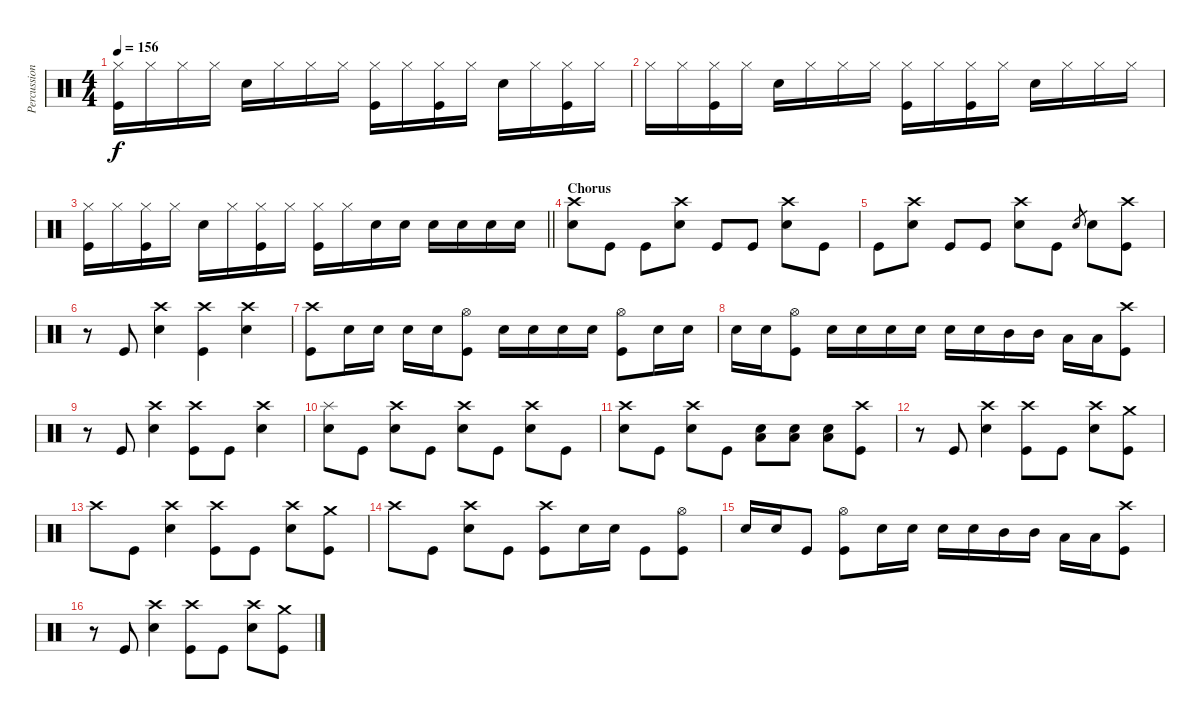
\track ("Percussion" "Percussion") {instrument percussion}
\staff {score}
\articulation defaults
\ts (4 4)
\tempo 156
\clef neutral
\ks c
("Hi-Hat (closed)" "Kick (hit)").16{dy f} "Hi-Hat (closed)".16 "Hi-Hat (closed)".16 "Hi-Hat (closed)".16 "Snare (hit) 2".16 "Hi-Hat (closed)".16 "Hi-Hat (closed)".16 "Hi-Hat (closed)".16 ("Hi-Hat (closed)" "Kick (hit)").16 "Hi-Hat (closed)".16 ("Hi-Hat (closed)" "Kick (hit)").16 "Hi-Hat (closed)".16 "Snare (hit) 2".16 "Hi-Hat (closed)".16 ("Hi-Hat (closed)" "Kick (hit)").16 "Hi-Hat (closed)".16 |
"Hi-Hat (closed)".16 "Hi-Hat (closed)".16 ("Hi-Hat (closed)" "Kick (hit)").16 "Hi-Hat (closed)".16 "Snare (hit) 2".16 "Hi-Hat (closed)".16 "Hi-Hat (closed)".16 "Hi-Hat (closed)".16 ("Hi-Hat (closed)" "Kick (hit)").16 "Hi-Hat (closed)".16 ("Hi-Hat (closed)" "Kick (hit)").16 "Hi-Hat (closed)".16 "Snare (hit) 2".16 "Hi-Hat (closed)".16 "Hi-Hat (closed)".16 "Hi-Hat (closed)".16 |
\barLineRight lightlight
("Hi-Hat (closed)" "Kick (hit)").16 "Hi-Hat (closed)".16 ("Hi-Hat (closed)" "Kick (hit)").16 "Hi-Hat (closed)".16 "Snare (hit) 2".16 "Hi-Hat (closed)".16 ("Hi-Hat (closed)" "Kick (hit)").16 "Hi-Hat (closed)".16 ("Hi-Hat (closed)" "Kick (hit)").16 "Hi-Hat (closed)".16 "Snare (hit) 2".16 "Snare (hit) 2".16 "Snare (hit) 2".16 "Snare (hit) 2".16 "Snare (hit) 2".16 "Snare (hit) 2".16 |
\section ("" "Chorus")
("Crash high (hit)" "Snare (hit) 2").8 "Kick (hit)".8 "Kick (hit)".8 ("Crash high (hit)" "Snare (hit) 2").8 "Kick (hit)".8 "Kick (hit)".8 ("Crash high (hit)" "Snare (hit) 2").8 "Kick (hit)".8 |
"Kick (hit)".8 ("Crash high (hit)" "Snare (hit) 2").8 "Kick (hit)".8 "Kick (hit)".8 ("Crash high (hit)" "Snare (hit) 2").8 "Kick (hit)".8 "Snare (hit) 2".8{gr} "Snare (hit) 2".8 ("Crash high (hit)" "Kick (hit)").8 |
r.8 "Kick (hit)".8 ("Crash high (hit)" "Snare (hit) 2").4 ("Crash high (hit)" "Kick (hit)").4 ("Crash high (hit)" "Snare (hit) 2").4 |
("Crash high (hit)" "Kick (hit)").8 "Snare (hit) 2".16 "Snare (hit) 2".16 "Snare (hit) 2".16 "Snare (hit) 2".16 ("Hi-Hat (open)" "Kick (hit)").8 "Snare (hit) 2".16 "Snare (hit) 2".16 "Snare (hit) 2".16 "Snare (hit) 2".16 ("Hi-Hat (open)" "Kick (hit)").8 "Snare (hit) 2".16 "Snare (hit) 2".16 |
"Snare (hit) 2".16 "Snare (hit) 2".16 ("Hi-Hat (open)" "Kick (hit)").8 "Snare (hit) 2".16 "Snare (hit) 2".16 "Snare (hit) 2".16 "Snare (hit) 2".16 "Snare (hit) 2".16 "Snare (hit) 2".16 "Mid Tom (hit)".16 "Mid Tom (hit)".16 "Low Tom (hit)".16 "Low Tom (hit)".16 ("Crash high (hit)" "Kick (hit)").8 |
r.8 "Kick (hit)".8 ("Crash high (hit)" "Snare (hit) 2").4 ("Crash high (hit)" "Kick (hit)").8 "Kick (hit)".8 ("Crash high (hit)" "Snare (hit) 2").4 |
("Splash (hit)" "Snare (hit) 2").8 "Kick (hit)".8 ("Crash high (hit)" "Snare (hit) 2").8 "Kick (hit)".8 ("Crash high (hit)" "Snare (hit) 2").8 "Kick (hit)".8 ("Crash high (hit)" "Snare (hit) 2").8 "Kick (hit)".8 |
("Crash high (hit)" "Snare (hit) 2").8 "Kick (hit)".8 ("Crash high (hit)" "Snare (hit) 2").8 "Kick (hit)".8 ("Snare (hit) 2" "Low Tom (hit)").8 ("Snare (hit) 2" "Low Tom (hit)").8 ("Snare (hit) 2" "Low Tom (hit)").8 ("Crash high (hit)" "Kick (hit)").8 |
r.8 "Kick (hit)".8 ("Crash high (hit)" "Snare (hit) 2").4 ("Crash high (hit)" "Kick (hit)").8 "Kick (hit)".8 ("Crash high (hit)" "Snare (hit) 2").8 ("Crash medium (hit)" "Kick (hit)").8 |
"Crash high (hit)".8 "Kick (hit)".8 ("Crash high (hit)" "Snare (hit) 2").4 ("Crash high (hit)" "Kick (hit)").8 "Kick (hit)".8 ("Crash high (hit)" "Snare (hit) 2").8 ("Crash medium (hit)" "Kick (hit)").8 |
"Crash high (hit)".8 "Kick (hit)".8 ("Crash high (hit)" "Snare (hit) 2").8 "Kick (hit)".8 ("Crash high (hit)" "Kick (hit)").8 "Snare (hit) 2".16 "Snare (hit) 2".16 "Kick (hit)".8 ("Hi-Hat (open)" "Kick (hit)").8 |
"Snare (hit) 2".16 "Snare (hit) 2".16 "Kick (hit)".8 ("Hi-Hat (open)" "Kick (hit)").8 "Snare (hit) 2".16 "Snare (hit) 2".16 "Snare (hit) 2".16 "Snare (hit) 2".16 "Mid Tom (hit)".16 "Mid Tom (hit)".16 "Low Tom (hit)".16 "Low Tom (hit)".16 ("Crash high (hit)" "Kick (hit)").8 |
r.8 "Kick (hit)".8 ("Crash high (hit)" "Snare (hit) 2").4 ("Crash high (hit)" "Kick (hit)").8 "Kick (hit)".8 ("Crash high (hit)" "Snare (hit) 2").8 ("Crash medium (hit)" "Kick (hit)").8
